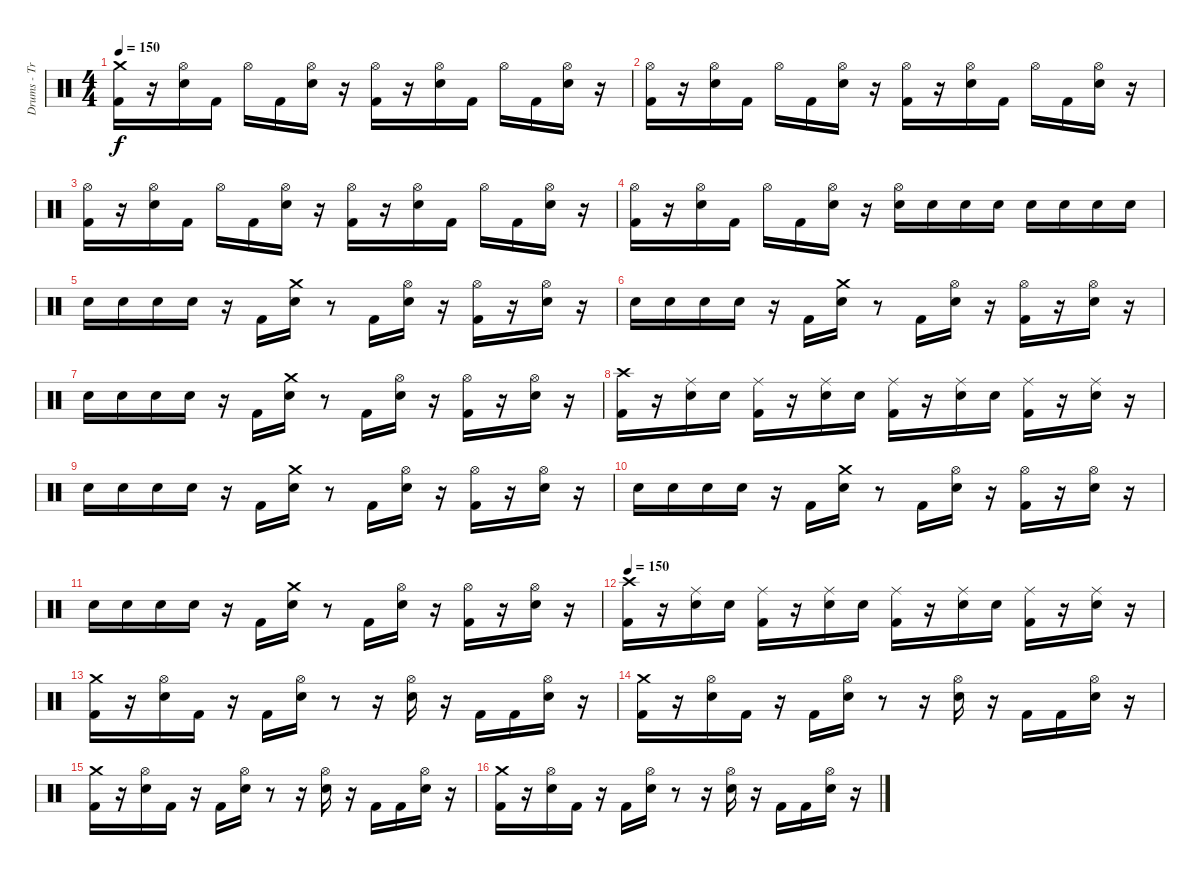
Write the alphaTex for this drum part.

\track ("Drums - Travis Barker" "Drums - Tr") {instrument percussion}
\staff {score}
\articulation defaults
\ts (4 4)
\tempo 150
\clef neutral
\ks c
("Crash medium (hit)" "Kick (hit) 2").16{dy f} r.16 ("Hi-Hat (open)" "Electric Snare (hit)").16 "Kick (hit) 2".16 "Hi-Hat (open)".16 "Kick (hit) 2".16 ("Hi-Hat (open)" "Electric Snare (hit)").16 r.16 ("Hi-Hat (open)" "Kick (hit) 2").16 r.16 ("Hi-Hat (open)" "Electric Snare (hit)").16 "Kick (hit) 2".16 "Hi-Hat (open)".16 "Kick (hit) 2".16 ("Hi-Hat (open)" "Electric Snare (hit)").16 r.16 |
("Hi-Hat (open)" "Kick (hit) 2").16 r.16 ("Hi-Hat (open)" "Electric Snare (hit)").16 "Kick (hit) 2".16 "Hi-Hat (open)".16 "Kick (hit) 2".16 ("Hi-Hat (open)" "Electric Snare (hit)").16 r.16 ("Hi-Hat (open)" "Kick (hit) 2").16 r.16 ("Hi-Hat (open)" "Electric Snare (hit)").16 "Kick (hit) 2".16 "Hi-Hat (open)".16 "Kick (hit) 2".16 ("Hi-Hat (open)" "Electric Snare (hit)").16 r.16 |
("Hi-Hat (open)" "Kick (hit) 2").16 r.16 ("Hi-Hat (open)" "Electric Snare (hit)").16 "Kick (hit) 2".16 "Hi-Hat (open)".16 "Kick (hit) 2".16 ("Hi-Hat (open)" "Electric Snare (hit)").16 r.16 ("Hi-Hat (open)" "Kick (hit) 2").16 r.16 ("Hi-Hat (open)" "Electric Snare (hit)").16 "Kick (hit) 2".16 "Hi-Hat (open)".16 "Kick (hit) 2".16 ("Hi-Hat (open)" "Electric Snare (hit)").16 r.16 |
("Hi-Hat (open)" "Kick (hit) 2").16 r.16 ("Hi-Hat (open)" "Electric Snare (hit)").16 "Kick (hit) 2".16 "Hi-Hat (open)".16 "Kick (hit) 2".16 ("Hi-Hat (open)" "Electric Snare (hit)").16 r.16 ("Hi-Hat (open)" "Electric Snare (hit)").16 "Electric Snare (hit)".16 "Electric Snare (hit)".16 "Electric Snare (hit)".16 "Electric Snare (hit)".16 "Electric Snare (hit)".16 "Electric Snare (hit)".16 "Electric Snare (hit)".16 |
"Electric Snare (hit)".16 "Electric Snare (hit)".16 "Electric Snare (hit)".16 "Electric Snare (hit)".16 r.16 "Kick (hit) 2".16 ("Crash medium (hit)" "Electric Snare (hit)").16 r.8 "Kick (hit) 2".16 ("Hi-Hat (open)" "Electric Snare (hit)").16 r.16 ("Hi-Hat (open)" "Kick (hit) 2").16 r.16 ("Hi-Hat (open)" "Electric Snare (hit)").16 r.16 |
"Electric Snare (hit)".16 "Electric Snare (hit)".16 "Electric Snare (hit)".16 "Electric Snare (hit)".16 r.16 "Kick (hit) 2".16 ("Crash medium (hit)" "Electric Snare (hit)").16 r.8 "Kick (hit) 2".16 ("Hi-Hat (open)" "Electric Snare (hit)").16 r.16 ("Hi-Hat (open)" "Kick (hit) 2").16 r.16 ("Hi-Hat (open)" "Electric Snare (hit)").16 r.16 |
"Electric Snare (hit)".16 "Electric Snare (hit)".16 "Electric Snare (hit)".16 "Electric Snare (hit)".16 r.16 "Kick (hit) 2".16 ("Crash medium (hit)" "Electric Snare (hit)").16 r.8 "Kick (hit) 2".16 ("Hi-Hat (open)" "Electric Snare (hit)").16 r.16 ("Hi-Hat (open)" "Kick (hit) 2").16 r.16 ("Hi-Hat (open)" "Electric Snare (hit)").16 r.16 |
("Crash high (hit)" "Kick (hit) 2").16 r.16 ("Ride (middle)" "Electric Snare (hit)").16 "Electric Snare (hit)".16 ("Ride (middle)" "Kick (hit) 2").16 r.16 ("Ride (middle)" "Electric Snare (hit)").16 "Electric Snare (hit)".16 ("Ride (middle)" "Kick (hit) 2").16 r.16 ("Ride (middle)" "Electric Snare (hit)").16 "Electric Snare (hit)".16 ("Ride (middle)" "Kick (hit) 2").16 r.16 ("Ride (middle)" "Electric Snare (hit)").16 r.16 |
"Electric Snare (hit)".16 "Electric Snare (hit)".16 "Electric Snare (hit)".16 "Electric Snare (hit)".16 r.16 "Kick (hit) 2".16 ("Crash medium (hit)" "Electric Snare (hit)").16 r.8 "Kick (hit) 2".16 ("Hi-Hat (open)" "Electric Snare (hit)").16 r.16 ("Hi-Hat (open)" "Kick (hit) 2").16 r.16 ("Hi-Hat (open)" "Electric Snare (hit)").16 r.16 |
"Electric Snare (hit)".16 "Electric Snare (hit)".16 "Electric Snare (hit)".16 "Electric Snare (hit)".16 r.16 "Kick (hit) 2".16 ("Crash medium (hit)" "Electric Snare (hit)").16 r.8 "Kick (hit) 2".16 ("Hi-Hat (open)" "Electric Snare (hit)").16 r.16 ("Hi-Hat (open)" "Kick (hit) 2").16 r.16 ("Hi-Hat (open)" "Electric Snare (hit)").16 r.16 |
"Electric Snare (hit)".16 "Electric Snare (hit)".16 "Electric Snare (hit)".16 "Electric Snare (hit)".16 r.16 "Kick (hit) 2".16 ("Crash medium (hit)" "Electric Snare (hit)").16 r.8 "Kick (hit) 2".16 ("Hi-Hat (open)" "Electric Snare (hit)").16 r.16 ("Hi-Hat (open)" "Kick (hit) 2").16 r.16 ("Hi-Hat (open)" "Electric Snare (hit)").16 r.16 |
\tempo 150
("Crash high (hit)" "Kick (hit) 2").16 r.16 ("Ride (middle)" "Electric Snare (hit)").16 "Electric Snare (hit)".16 ("Ride (middle)" "Kick (hit) 2").16 r.16 ("Ride (middle)" "Electric Snare (hit)").16 "Electric Snare (hit)".16 ("Ride (middle)" "Kick (hit) 2").16 r.16 ("Ride (middle)" "Electric Snare (hit)").16 "Electric Snare (hit)".16 ("Ride (middle)" "Kick (hit) 2").16 r.16 ("Ride (middle)" "Electric Snare (hit)").16 r.16 |
("Crash medium (hit)" "Kick (hit) 2").16 r.16 ("Hi-Hat (open)" "Electric Snare (hit)").16 "Kick (hit) 2".16 r.16 "Kick (hit) 2".16 ("Hi-Hat (open)" "Electric Snare (hit)").16 r.8 r.16 ("Hi-Hat (open)" "Electric Snare (hit)").16 r.16 "Kick (hit) 2".16 "Kick (hit) 2".16 ("Hi-Hat (open)" "Electric Snare (hit)").16 r.16 |
("Crash medium (hit)" "Kick (hit) 2").16 r.16 ("Hi-Hat (open)" "Electric Snare (hit)").16 "Kick (hit) 2".16 r.16 "Kick (hit) 2".16 ("Hi-Hat (open)" "Electric Snare (hit)").16 r.8 r.16 ("Hi-Hat (open)" "Electric Snare (hit)").16 r.16 "Kick (hit) 2".16 "Kick (hit) 2".16 ("Hi-Hat (open)" "Electric Snare (hit)").16 r.16 |
("Crash medium (hit)" "Kick (hit) 2").16 r.16 ("Hi-Hat (open)" "Electric Snare (hit)").16 "Kick (hit) 2".16 r.16 "Kick (hit) 2".16 ("Hi-Hat (open)" "Electric Snare (hit)").16 r.8 r.16 ("Hi-Hat (open)" "Electric Snare (hit)").16 r.16 "Kick (hit) 2".16 "Kick (hit) 2".16 ("Hi-Hat (open)" "Electric Snare (hit)").16 r.16 |
("Crash medium (hit)" "Kick (hit) 2").16 r.16 ("Hi-Hat (open)" "Electric Snare (hit)").16 "Kick (hit) 2".16 r.16 "Kick (hit) 2".16 ("Hi-Hat (open)" "Electric Snare (hit)").16 r.8 r.16 ("Hi-Hat (open)" "Electric Snare (hit)").16 r.16 "Kick (hit) 2".16 "Kick (hit) 2".16 ("Hi-Hat (open)" "Electric Snare (hit)").16 r.16
